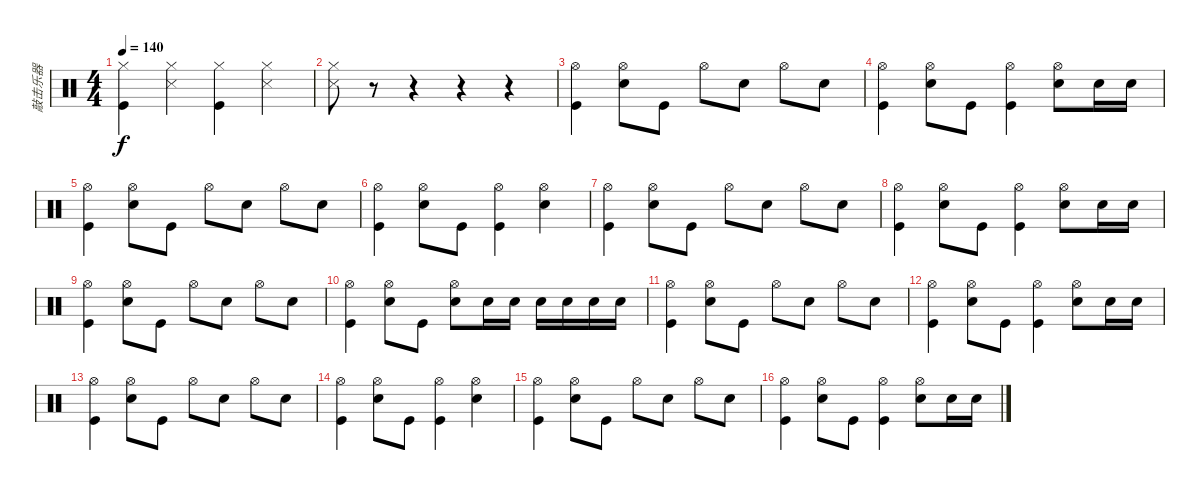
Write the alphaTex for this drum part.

\track ("敲击乐器" "敲击乐器") {instrument percussion}
\staff {score}
\articulation defaults
\ts (4 4)
\tempo 140
\clef neutral
\ks c
("Kick (hit)" "Hi-Hat (closed)").4{dy f} ("Snare (side stick) 3" "Hi-Hat (closed)").4 ("Kick (hit)" "Hi-Hat (closed)").4 ("Snare (side stick) 3" "Hi-Hat (closed)").4 |
("Hi-Hat (closed)" "Snare (side stick) 3").8 r.8 r.4 r.4 r.4 |
("Hi-Hat (open)" "Kick (hit)").4 ("Snare (hit) 2" "Hi-Hat (open)").8 "Kick (hit)".8 "Hi-Hat (open)".8 "Snare (hit) 2".8 "Hi-Hat (open)".8 "Snare (hit) 2".8 |
("Kick (hit)" "Hi-Hat (open)").4 ("Snare (hit) 2" "Hi-Hat (open)").8 "Kick (hit)".8 ("Kick (hit)" "Hi-Hat (open)").4 ("Snare (hit) 2" "Hi-Hat (open)").8 "Snare (hit) 2".16 "Snare (hit) 2".16 |
("Hi-Hat (open)" "Kick (hit)").4 ("Snare (hit) 2" "Hi-Hat (open)").8 "Kick (hit)".8 "Hi-Hat (open)".8 "Snare (hit) 2".8 "Hi-Hat (open)".8 "Snare (hit) 2".8 |
("Kick (hit)" "Hi-Hat (open)").4 ("Snare (hit) 2" "Hi-Hat (open)").8 "Kick (hit)".8 ("Kick (hit)" "Hi-Hat (open)").4 ("Snare (hit) 2" "Hi-Hat (open)").4 |
("Hi-Hat (open)" "Kick (hit)").4 ("Snare (hit) 2" "Hi-Hat (open)").8 "Kick (hit)".8 "Hi-Hat (open)".8 "Snare (hit) 2".8 "Hi-Hat (open)".8 "Snare (hit) 2".8 |
("Kick (hit)" "Hi-Hat (open)").4 ("Snare (hit) 2" "Hi-Hat (open)").8 "Kick (hit)".8 ("Kick (hit)" "Hi-Hat (open)").4 ("Snare (hit) 2" "Hi-Hat (open)").8 "Snare (hit) 2".16 "Snare (hit) 2".16 |
("Hi-Hat (open)" "Kick (hit)").4 ("Snare (hit) 2" "Hi-Hat (open)").8 "Kick (hit)".8 "Hi-Hat (open)".8 "Snare (hit) 2".8 "Hi-Hat (open)".8 "Snare (hit) 2".8 |
("Kick (hit)" "Hi-Hat (open)").4 ("Snare (hit) 2" "Hi-Hat (open)").8 "Kick (hit)".8 ("Snare (hit) 2" "Hi-Hat (open)").8 "Snare (hit) 2".16 "Snare (hit) 2".16 "Snare (hit) 2".16 "Snare (hit) 2".16 "Snare (hit) 2".16 "Snare (hit) 2".16 |
("Hi-Hat (open)" "Kick (hit)").4 ("Snare (hit) 2" "Hi-Hat (open)").8 "Kick (hit)".8 "Hi-Hat (open)".8 "Snare (hit) 2".8 "Hi-Hat (open)".8 "Snare (hit) 2".8 |
("Kick (hit)" "Hi-Hat (open)").4 ("Snare (hit) 2" "Hi-Hat (open)").8 "Kick (hit)".8 ("Kick (hit)" "Hi-Hat (open)").4 ("Snare (hit) 2" "Hi-Hat (open)").8 "Snare (hit) 2".16 "Snare (hit) 2".16 |
("Hi-Hat (open)" "Kick (hit)").4 ("Snare (hit) 2" "Hi-Hat (open)").8 "Kick (hit)".8 "Hi-Hat (open)".8 "Snare (hit) 2".8 "Hi-Hat (open)".8 "Snare (hit) 2".8 |
("Kick (hit)" "Hi-Hat (open)").4 ("Snare (hit) 2" "Hi-Hat (open)").8 "Kick (hit)".8 ("Kick (hit)" "Hi-Hat (open)").4 ("Snare (hit) 2" "Hi-Hat (open)").4 |
("Hi-Hat (open)" "Kick (hit)").4 ("Snare (hit) 2" "Hi-Hat (open)").8 "Kick (hit)".8 "Hi-Hat (open)".8 "Snare (hit) 2".8 "Hi-Hat (open)".8 "Snare (hit) 2".8 |
("Kick (hit)" "Hi-Hat (open)").4 ("Snare (hit) 2" "Hi-Hat (open)").8 "Kick (hit)".8 ("Kick (hit)" "Hi-Hat (open)").4 ("Snare (hit) 2" "Hi-Hat (open)").8 "Snare (hit) 2".16 "Snare (hit) 2".16
